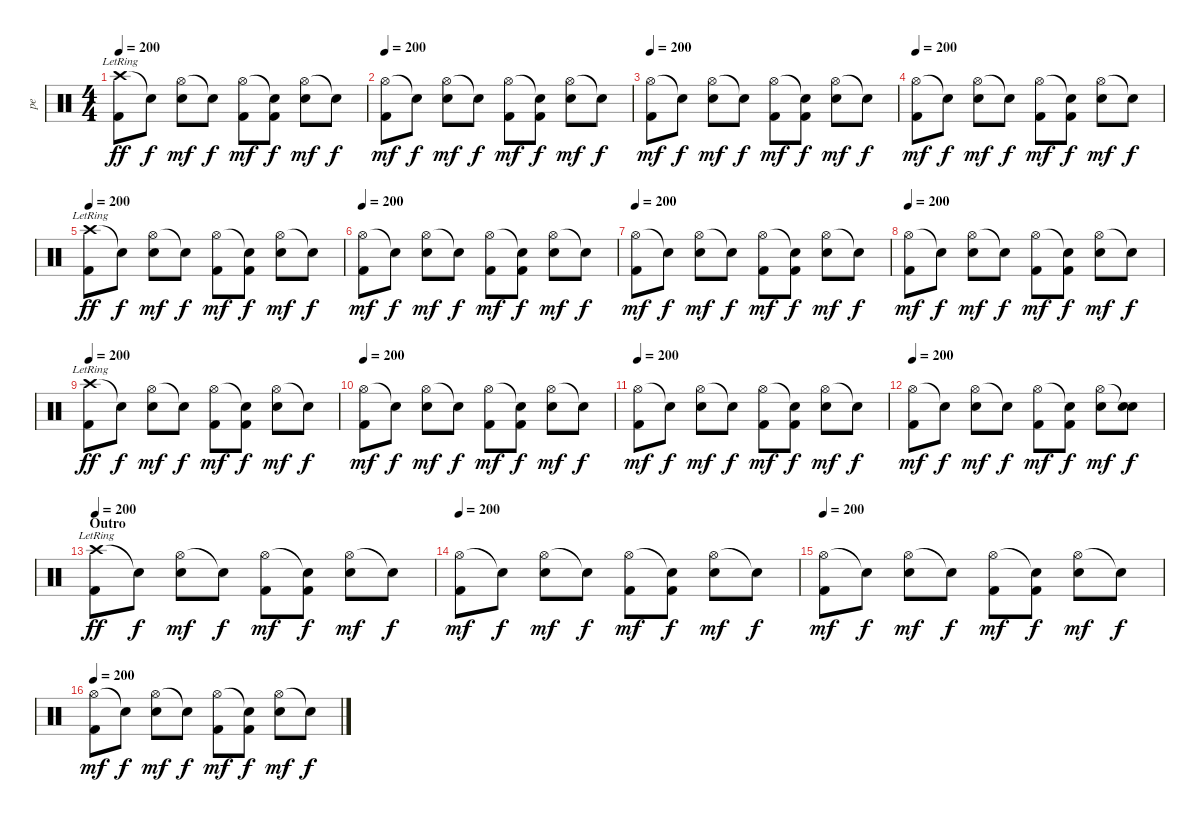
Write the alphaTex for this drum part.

\track ("pe" "pe") {instrument percussion}
\staff {score}
\articulation defaults
\ts (4 4)
\tempo 200
\clef neutral
\ks c
("Crash high (hit)"{lr} "Kick (hit) 2").8{dy ff} "Snare (hit)"{t}.8{dy f} ("Hi-Hat (open)" "Snare (hit) 2").8{dy mf} "Snare (hit)"{t}.8{dy f} ("Hi-Hat (open)" "Kick (hit) 2").8{dy mf} ("Snare (hit)"{t} "Kick (hit) 2").8{dy f} ("Hi-Hat (open)" "Snare (hit) 2").8{dy mf} "Snare (hit)"{t}.8{dy f} |
\tempo 200
("Hi-Hat (open)" "Kick (hit) 2").8{dy mf} "Snare (hit)"{t}.8{dy f} ("Hi-Hat (open)" "Snare (hit) 2").8{dy mf} "Snare (hit)"{t}.8{dy f} ("Hi-Hat (open)" "Kick (hit) 2").8{dy mf} ("Snare (hit)"{t} "Kick (hit) 2").8{dy f} ("Hi-Hat (open)" "Snare (hit) 2").8{dy mf} "Snare (hit)"{t}.8{dy f} |
\tempo 200
("Hi-Hat (open)" "Kick (hit) 2").8{dy mf} "Snare (hit)"{t}.8{dy f} ("Hi-Hat (open)" "Snare (hit) 2").8{dy mf} "Snare (hit)"{t}.8{dy f} ("Hi-Hat (open)" "Kick (hit) 2").8{dy mf} ("Snare (hit)"{t} "Kick (hit) 2").8{dy f} ("Hi-Hat (open)" "Snare (hit) 2").8{dy mf} "Snare (hit)"{t}.8{dy f} |
\tempo 200
("Hi-Hat (open)" "Kick (hit) 2").8{dy mf} "Snare (hit)"{t}.8{dy f} ("Hi-Hat (open)" "Snare (hit) 2").8{dy mf} "Snare (hit)"{t}.8{dy f} ("Hi-Hat (open)" "Kick (hit) 2").8{dy mf} ("Snare (hit)"{t} "Kick (hit) 2").8{dy f} ("Hi-Hat (open)" "Snare (hit) 2").8{dy mf} "Snare (hit)"{t}.8{dy f} |
\tempo 200
("Crash high (hit)"{lr} "Kick (hit) 2").8{dy ff} "Snare (hit)"{t}.8{dy f} ("Hi-Hat (open)" "Snare (hit) 2").8{dy mf} "Snare (hit)"{t}.8{dy f} ("Hi-Hat (open)" "Kick (hit) 2").8{dy mf} ("Snare (hit)"{t} "Kick (hit) 2").8{dy f} ("Hi-Hat (open)" "Snare (hit) 2").8{dy mf} "Snare (hit)"{t}.8{dy f} |
\tempo 200
("Hi-Hat (open)" "Kick (hit) 2").8{dy mf} "Snare (hit)"{t}.8{dy f} ("Hi-Hat (open)" "Snare (hit) 2").8{dy mf} "Snare (hit)"{t}.8{dy f} ("Hi-Hat (open)" "Kick (hit) 2").8{dy mf} ("Snare (hit)"{t} "Kick (hit) 2").8{dy f} ("Hi-Hat (open)" "Snare (hit) 2").8{dy mf} "Snare (hit)"{t}.8{dy f} |
\tempo 200
("Hi-Hat (open)" "Kick (hit) 2").8{dy mf} "Snare (hit)"{t}.8{dy f} ("Hi-Hat (open)" "Snare (hit) 2").8{dy mf} "Snare (hit)"{t}.8{dy f} ("Hi-Hat (open)" "Kick (hit) 2").8{dy mf} ("Snare (hit)"{t} "Kick (hit) 2").8{dy f} ("Hi-Hat (open)" "Snare (hit) 2").8{dy mf} "Snare (hit)"{t}.8{dy f} |
\tempo 200
("Hi-Hat (open)" "Kick (hit) 2").8{dy mf} "Snare (hit)"{t}.8{dy f} ("Hi-Hat (open)" "Snare (hit) 2").8{dy mf} "Snare (hit)"{t}.8{dy f} ("Hi-Hat (open)" "Kick (hit) 2").8{dy mf} ("Snare (hit)"{t} "Kick (hit) 2").8{dy f} ("Hi-Hat (open)" "Snare (hit) 2").8{dy mf} "Snare (hit)"{t}.8{dy f} |
\tempo 200
("Crash high (hit)"{lr} "Kick (hit) 2").8{dy ff} "Snare (hit)"{t}.8{dy f} ("Hi-Hat (open)" "Snare (hit) 2").8{dy mf} "Snare (hit)"{t}.8{dy f} ("Hi-Hat (open)" "Kick (hit) 2").8{dy mf} ("Snare (hit)"{t} "Kick (hit) 2").8{dy f} ("Hi-Hat (open)" "Snare (hit) 2").8{dy mf} "Snare (hit)"{t}.8{dy f} |
\tempo 200
("Hi-Hat (open)" "Kick (hit) 2").8{dy mf} "Snare (hit)"{t}.8{dy f} ("Hi-Hat (open)" "Snare (hit) 2").8{dy mf} "Snare (hit)"{t}.8{dy f} ("Hi-Hat (open)" "Kick (hit) 2").8{dy mf} ("Snare (hit)"{t} "Kick (hit) 2").8{dy f} ("Hi-Hat (open)" "Snare (hit) 2").8{dy mf} "Snare (hit)"{t}.8{dy f} |
\tempo 200
("Hi-Hat (open)" "Kick (hit) 2").8{dy mf} "Snare (hit)"{t}.8{dy f} ("Hi-Hat (open)" "Snare (hit) 2").8{dy mf} "Snare (hit)"{t}.8{dy f} ("Hi-Hat (open)" "Kick (hit) 2").8{dy mf} ("Snare (hit)"{t} "Kick (hit) 2").8{dy f} ("Hi-Hat (open)" "Snare (hit) 2").8{dy mf} "Snare (hit)"{t}.8{dy f} |
\tempo 200
("Hi-Hat (open)" "Kick (hit) 2").8{dy mf} "Snare (hit)"{t}.8{dy f} ("Hi-Hat (open)" "Snare (hit) 2").8{dy mf} "Snare (hit)"{t}.8{dy f} ("Hi-Hat (open)" "Kick (hit) 2").8{dy mf} ("Snare (hit)"{t} "Kick (hit) 2").8{dy f} ("Hi-Hat (open)" "Snare (hit) 2").8{dy mf} ("Snare (hit)"{t} "Snare (hit) 2").8{dy f} |
\section ("" "Outro")
\tempo 200
("Crash high (hit)"{lr} "Kick (hit) 2").8{dy ff} "Snare (hit)"{t}.8{dy f} ("Hi-Hat (open)" "Snare (hit) 2").8{dy mf} "Snare (hit)"{t}.8{dy f} ("Hi-Hat (open)" "Kick (hit) 2").8{dy mf} ("Snare (hit)"{t} "Kick (hit) 2").8{dy f} ("Hi-Hat (open)" "Snare (hit) 2").8{dy mf} "Snare (hit)"{t}.8{dy f} |
\tempo 200
("Hi-Hat (open)" "Kick (hit) 2").8{dy mf} "Snare (hit)"{t}.8{dy f} ("Hi-Hat (open)" "Snare (hit) 2").8{dy mf} "Snare (hit)"{t}.8{dy f} ("Hi-Hat (open)" "Kick (hit) 2").8{dy mf} ("Snare (hit)"{t} "Kick (hit) 2").8{dy f} ("Hi-Hat (open)" "Snare (hit) 2").8{dy mf} "Snare (hit)"{t}.8{dy f} |
\tempo 200
("Hi-Hat (open)" "Kick (hit) 2").8{dy mf} "Snare (hit)"{t}.8{dy f} ("Hi-Hat (open)" "Snare (hit) 2").8{dy mf} "Snare (hit)"{t}.8{dy f} ("Hi-Hat (open)" "Kick (hit) 2").8{dy mf} ("Snare (hit)"{t} "Kick (hit) 2").8{dy f} ("Hi-Hat (open)" "Snare (hit) 2").8{dy mf} "Snare (hit)"{t}.8{dy f} |
\tempo 200
("Hi-Hat (open)" "Kick (hit) 2").8{dy mf} "Snare (hit)"{t}.8{dy f} ("Hi-Hat (open)" "Snare (hit) 2").8{dy mf} "Snare (hit)"{t}.8{dy f} ("Hi-Hat (open)" "Kick (hit) 2").8{dy mf} ("Snare (hit)"{t} "Kick (hit) 2").8{dy f} ("Hi-Hat (open)" "Snare (hit) 2").8{dy mf} "Snare (hit)"{t}.8{dy f}
